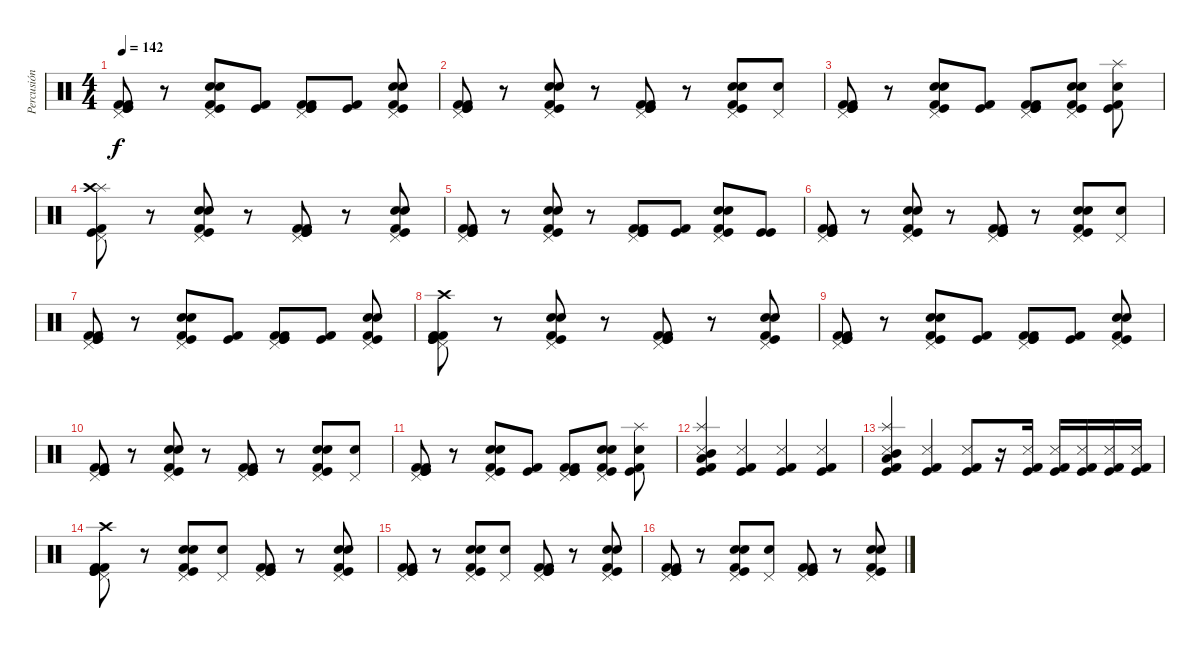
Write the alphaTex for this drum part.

\track ("Percusión" "Percusión") {instrument percussion}
\staff {score}
\articulation defaults
\ts (4 4)
\tempo 142
\clef neutral
\ks c
("Kick (hit) 2" "Kick (hit)" "Pedal Hi-Hat (hit)" "Kick (hit) 2" "Kick (hit)").8{dy f} r.8 ("Snare (hit) 2" "Pedal Hi-Hat (hit)" "Electric Snare (hit)" "Kick (hit)" "Kick (hit) 2").8 ("Kick (hit) 2" "Kick (hit)").8 ("Kick (hit) 2" "Kick (hit)" "Pedal Hi-Hat (hit)" "Kick (hit) 2" "Kick (hit)").8 ("Kick (hit) 2" "Kick (hit)").8 ("Snare (hit) 2" "Pedal Hi-Hat (hit)" "Electric Snare (hit)" "Kick (hit)" "Kick (hit) 2").8 |
("Kick (hit) 2" "Kick (hit)" "Pedal Hi-Hat (hit)" "Kick (hit) 2" "Kick (hit)").8 r.8 ("Snare (hit) 2" "Pedal Hi-Hat (hit)" "Electric Snare (hit)" "Kick (hit)" "Kick (hit) 2").8 r.8 ("Kick (hit) 2" "Kick (hit)" "Pedal Hi-Hat (hit)" "Kick (hit) 2" "Kick (hit)").8 r.8 ("Snare (hit) 2" "Pedal Hi-Hat (hit)" "Electric Snare (hit)" "Kick (hit)" "Kick (hit) 2").8 ("Electric Snare (hit)" "Pedal Hi-Hat (hit)").8 |
("Kick (hit) 2" "Kick (hit)" "Pedal Hi-Hat (hit)" "Kick (hit) 2" "Kick (hit)").8 r.8 ("Snare (hit) 2" "Pedal Hi-Hat (hit)" "Electric Snare (hit)" "Kick (hit)" "Kick (hit) 2").8 ("Kick (hit)" "Kick (hit) 2").8 ("Kick (hit) 2" "Kick (hit)" "Pedal Hi-Hat (hit)" "Kick (hit) 2" "Kick (hit)").8 ("Snare (hit) 2" "Pedal Hi-Hat (hit)" "Electric Snare (hit)" "Kick (hit)" "Kick (hit) 2").8 ("Electric Snare (hit)" "Splash (hit)" "Kick (hit)" "Kick (hit) 2").8 |
("Splash (hit)" "Crash high (hit)" "Pedal Hi-Hat (hit)" "Kick (hit) 2" "Kick (hit)").8 r.8 ("Snare (hit) 2" "Pedal Hi-Hat (hit)" "Electric Snare (hit)" "Kick (hit)" "Kick (hit) 2").8 r.8 ("Kick (hit) 2" "Kick (hit)" "Pedal Hi-Hat (hit)" "Kick (hit) 2" "Kick (hit)").8 r.8 ("Snare (hit) 2" "Pedal Hi-Hat (hit)" "Electric Snare (hit)" "Kick (hit)" "Kick (hit) 2").8 |
("Kick (hit) 2" "Kick (hit)" "Pedal Hi-Hat (hit)" "Kick (hit) 2" "Kick (hit)").8 r.8 ("Snare (hit) 2" "Pedal Hi-Hat (hit)" "Electric Snare (hit)" "Kick (hit)" "Kick (hit) 2").8 r.8 ("Kick (hit) 2" "Kick (hit)" "Pedal Hi-Hat (hit)" "Kick (hit) 2" "Kick (hit)").8 ("Kick (hit) 2" "Kick (hit)").8 ("Snare (hit) 2" "Pedal Hi-Hat (hit)" "Electric Snare (hit)" "Kick (hit)" "Kick (hit) 2").8 ("Kick (hit)" "Kick (hit)").8 |
("Kick (hit) 2" "Kick (hit)" "Pedal Hi-Hat (hit)" "Kick (hit) 2" "Kick (hit)").8 r.8 ("Snare (hit) 2" "Pedal Hi-Hat (hit)" "Electric Snare (hit)" "Kick (hit)" "Kick (hit) 2").8 r.8 ("Kick (hit) 2" "Kick (hit)" "Pedal Hi-Hat (hit)" "Kick (hit) 2" "Kick (hit)").8 r.8 ("Snare (hit) 2" "Pedal Hi-Hat (hit)" "Electric Snare (hit)" "Kick (hit)" "Kick (hit) 2").8 ("Electric Snare (hit)" "Pedal Hi-Hat (hit)").8 |
("Kick (hit) 2" "Kick (hit)" "Pedal Hi-Hat (hit)" "Kick (hit) 2" "Kick (hit)").8 r.8 ("Snare (hit) 2" "Pedal Hi-Hat (hit)" "Electric Snare (hit)" "Kick (hit)" "Kick (hit) 2").8 ("Kick (hit)" "Kick (hit) 2").8 ("Kick (hit) 2" "Kick (hit)" "Pedal Hi-Hat (hit)" "Kick (hit) 2" "Kick (hit)").8 ("Kick (hit)" "Kick (hit) 2").8 ("Snare (hit) 2" "Pedal Hi-Hat (hit)" "Electric Snare (hit)" "Kick (hit)" "Kick (hit) 2").8 |
("Kick (hit) 2" "Kick (hit)" "Crash high (hit)" "Pedal Hi-Hat (hit)" "Kick (hit) 2" "Kick (hit)").8 r.8 ("Snare (hit) 2" "Pedal Hi-Hat (hit)" "Electric Snare (hit)" "Kick (hit)" "Kick (hit) 2").8 r.8 ("Kick (hit) 2" "Kick (hit)" "Pedal Hi-Hat (hit)" "Kick (hit) 2" "Kick (hit)").8 r.8 ("Snare (hit) 2" "Pedal Hi-Hat (hit)" "Electric Snare (hit)" "Kick (hit)" "Kick (hit) 2").8 |
("Kick (hit) 2" "Kick (hit)" "Pedal Hi-Hat (hit)" "Kick (hit) 2" "Kick (hit)").8 r.8 ("Snare (hit) 2" "Pedal Hi-Hat (hit)" "Electric Snare (hit)" "Kick (hit)" "Kick (hit) 2").8 ("Kick (hit) 2" "Kick (hit)").8 ("Kick (hit) 2" "Kick (hit)" "Pedal Hi-Hat (hit)" "Kick (hit) 2" "Kick (hit)").8 ("Kick (hit) 2" "Kick (hit)").8 ("Snare (hit) 2" "Pedal Hi-Hat (hit)" "Electric Snare (hit)" "Kick (hit)" "Kick (hit) 2").8 |
("Kick (hit) 2" "Kick (hit)" "Pedal Hi-Hat (hit)" "Kick (hit) 2" "Kick (hit)").8 r.8 ("Snare (hit) 2" "Pedal Hi-Hat (hit)" "Electric Snare (hit)" "Kick (hit)" "Kick (hit) 2").8 r.8 ("Kick (hit) 2" "Kick (hit)" "Pedal Hi-Hat (hit)" "Kick (hit) 2" "Kick (hit)").8 r.8 ("Snare (hit) 2" "Pedal Hi-Hat (hit)" "Electric Snare (hit)" "Kick (hit)" "Kick (hit) 2").8 ("Electric Snare (hit)" "Pedal Hi-Hat (hit)").8 |
("Kick (hit) 2" "Kick (hit)" "Pedal Hi-Hat (hit)" "Kick (hit) 2" "Kick (hit)").8 r.8 ("Snare (hit) 2" "Pedal Hi-Hat (hit)" "Electric Snare (hit)" "Kick (hit)" "Kick (hit) 2").8 ("Kick (hit)" "Kick (hit) 2").8 ("Kick (hit) 2" "Kick (hit)" "Pedal Hi-Hat (hit)" "Kick (hit) 2" "Kick (hit)").8 ("Snare (hit) 2" "Pedal Hi-Hat (hit)" "Electric Snare (hit)" "Kick (hit)" "Kick (hit) 2").8 ("Electric Snare (hit)" "Splash (hit)" "Kick (hit)" "Kick (hit) 2").8 |
("Mid Tom (hit)" "Splash (hit)" "Low Tom (hit)" "Kick (hit) 2" "Kick (hit)" "Snare (side stick) 3").4 ("Kick (hit) 2" "Kick (hit)" "Snare (side stick) 3").4 ("Kick (hit) 2" "Kick (hit)" "Snare (side stick) 3").4 ("Kick (hit) 2" "Kick (hit)" "Snare (side stick) 3").4 |
("Mid Tom (hit)" "Splash (hit)" "Low Tom (hit)" "Kick (hit) 2" "Kick (hit)" "Snare (side stick) 3").4 ("Kick (hit) 2" "Kick (hit)" "Snare (side stick) 3").4 ("Kick (hit) 2" "Kick (hit)" "Snare (side stick) 3").8 r.16 ("Kick (hit) 2" "Kick (hit)" "Snare (side stick) 3").16 ("Kick (hit) 2" "Kick (hit)" "Snare (side stick) 3").16 ("Kick (hit) 2" "Kick (hit)" "Snare (side stick) 3").16 ("Kick (hit) 2" "Kick (hit)" "Snare (side stick) 3").16 ("Kick (hit) 2" "Kick (hit)" "Snare (side stick) 3").16 |
("Kick (hit) 2" "Kick (hit)" "Crash high (hit)" "Pedal Hi-Hat (hit)" "Kick (hit) 2" "Kick (hit)").8 r.8 ("Snare (hit) 2" "Pedal Hi-Hat (hit)" "Electric Snare (hit)" "Kick (hit)" "Kick (hit) 2").8 ("Pedal Hi-Hat (hit)" "Electric Snare (hit)").8 ("Kick (hit) 2" "Kick (hit)" "Pedal Hi-Hat (hit)" "Kick (hit) 2" "Kick (hit)").8 r.8 ("Snare (hit) 2" "Pedal Hi-Hat (hit)" "Electric Snare (hit)" "Kick (hit)" "Kick (hit) 2").8 |
("Kick (hit) 2" "Kick (hit)" "Pedal Hi-Hat (hit)" "Kick (hit) 2" "Kick (hit)").8 r.8 ("Snare (hit) 2" "Pedal Hi-Hat (hit)" "Electric Snare (hit)" "Kick (hit)" "Kick (hit) 2").8 ("Pedal Hi-Hat (hit)" "Electric Snare (hit)").8 ("Kick (hit) 2" "Kick (hit)" "Pedal Hi-Hat (hit)" "Kick (hit) 2" "Kick (hit)").8 r.8 ("Snare (hit) 2" "Pedal Hi-Hat (hit)" "Electric Snare (hit)" "Kick (hit)" "Kick (hit) 2").8 |
("Kick (hit) 2" "Kick (hit)" "Pedal Hi-Hat (hit)" "Kick (hit) 2" "Kick (hit)").8 r.8 ("Snare (hit) 2" "Pedal Hi-Hat (hit)" "Electric Snare (hit)" "Kick (hit)" "Kick (hit) 2").8 ("Pedal Hi-Hat (hit)" "Electric Snare (hit)").8 ("Kick (hit) 2" "Kick (hit)" "Pedal Hi-Hat (hit)" "Kick (hit) 2" "Kick (hit)").8 r.8 ("Snare (hit) 2" "Pedal Hi-Hat (hit)" "Electric Snare (hit)" "Kick (hit)" "Kick (hit) 2").8
